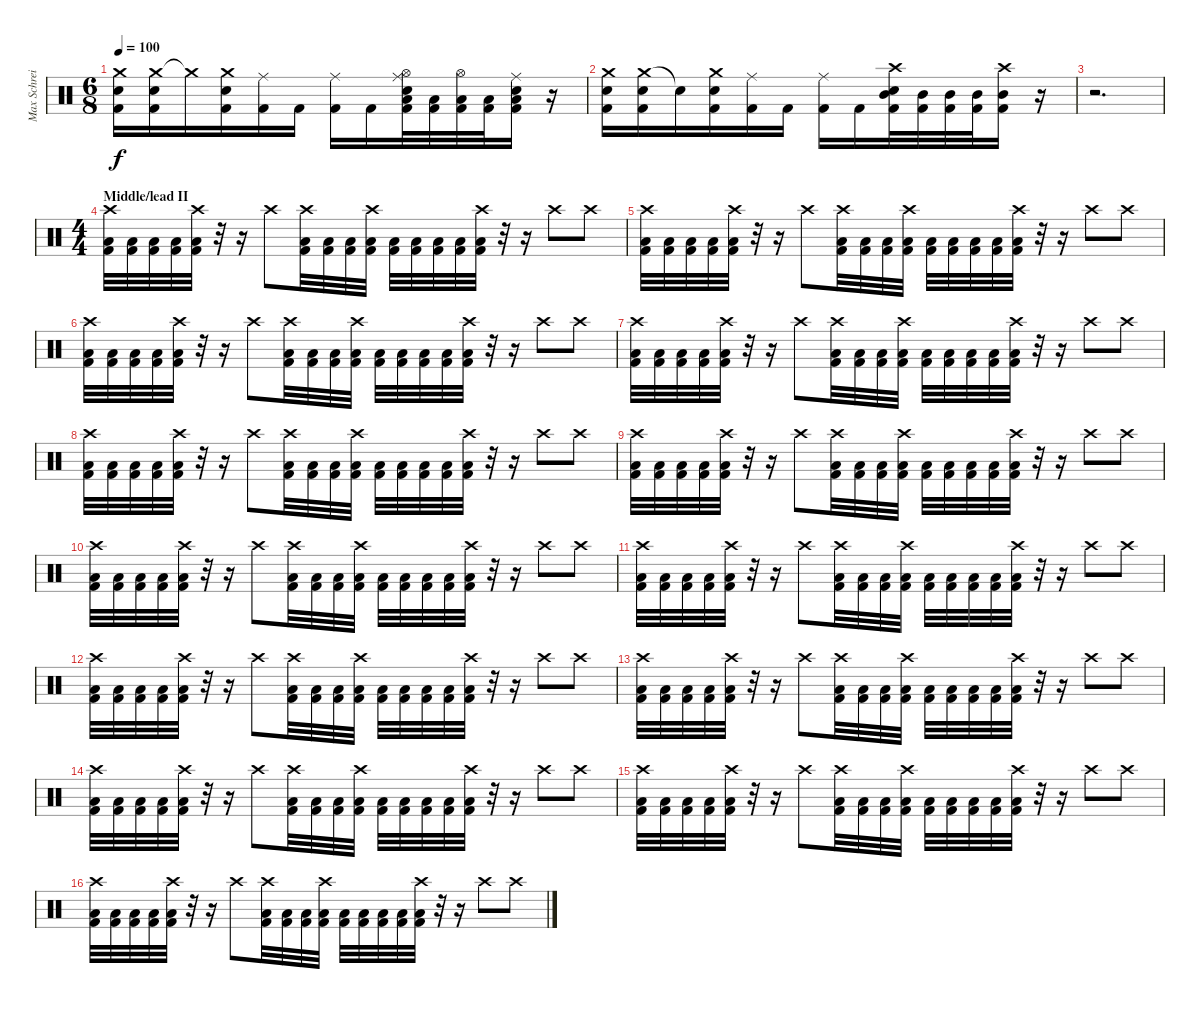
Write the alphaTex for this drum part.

\track ("Max Schreiber " "Max Schrei") {instrument percussion}
\staff {score}
\articulation defaults
\ts (6 8)
\tempo 100
\clef neutral
\ks c
("Crash medium (hit)" "Snare (hit) 2" "Kick (hit) 2").16{dy f} ("Crash medium (hit)" "Snare (hit) 2" "Kick (hit) 2").16 "Crash medium (hit)"{t}.16 ("Crash medium (hit)" "Snare (hit) 2" "Kick (hit) 2").16 ("Ride (middle)" "Kick (hit) 2").16 "Kick (hit) 2".16 ("Ride (middle)" "Kick (hit) 2").16 "Kick (hit) 2".16 ("Ride (middle)" "Hi-Hat (open)" "Electric Snare (hit)" "Low Floor Tom (hit)" "Kick (hit) 2").32 ("Low Floor Tom (hit)" "Kick (hit) 2").32 ("Hi-Hat (open)" "Low Floor Tom (hit)" "Kick (hit) 2").32 ("Low Floor Tom (hit)" "Kick (hit) 2").32 ("Ride (middle)" "Electric Snare (hit)" "Low Floor Tom (hit)" "Kick (hit) 2").16 r.16 |
("Crash medium (hit)" "Snare (hit) 2" "Kick (hit) 2").16 ("Crash medium (hit)" "Snare (hit) 2" "Kick (hit) 2").16 "Snare (hit)"{t}.16 ("Crash medium (hit)" "Snare (hit) 2" "Kick (hit) 2").16 ("Ride (middle)" "Kick (hit) 2").16 "Kick (hit) 2".16 ("Ride (middle)" "Kick (hit) 2").16 "Kick (hit) 2".16 ("Crash high (hit)" "Electric Snare (hit)" "Mid Tom (hit)" "Kick (hit) 2").32 ("Mid Tom (hit)" "Kick (hit) 2").32 ("Mid Tom (hit)" "Kick (hit) 2").32 ("Mid Tom (hit)" "Kick (hit) 2").32 ("Crash high (hit)" "Mid Tom (hit)" "Kick (hit) 2").16 r.16 |
r.2{d} |
\ts (4 4)
\section ("" "Middle/lead II")
("Crash high (hit)" "Low Floor Tom (hit)" "Kick (hit) 2").32 ("Low Floor Tom (hit)" "Kick (hit) 2").32 ("Low Floor Tom (hit)" "Kick (hit) 2").32 ("Low Floor Tom (hit)" "Kick (hit) 2").32 ("Crash high (hit)" "Low Floor Tom (hit)" "Kick (hit) 2").32 r.32 r.16 "Crash high (hit)".8 ("Crash high (hit)" "Low Floor Tom (hit)" "Kick (hit) 2").32 ("Low Floor Tom (hit)" "Kick (hit) 2").32 ("Low Floor Tom (hit)" "Kick (hit) 2").32 ("Crash high (hit)" "Low Floor Tom (hit)" "Kick (hit) 2").32 ("Low Floor Tom (hit)" "Kick (hit) 2").32 ("Low Floor Tom (hit)" "Kick (hit) 2").32 ("Low Floor Tom (hit)" "Kick (hit) 2").32 ("Low Floor Tom (hit)" "Kick (hit) 2").32 ("Crash high (hit)" "Low Floor Tom (hit)" "Kick (hit) 2").32 r.32 r.16 "Crash high (hit)".8 "Crash high (hit)".8 |
("Crash high (hit)" "Low Floor Tom (hit)" "Kick (hit) 2").32 ("Low Floor Tom (hit)" "Kick (hit) 2").32 ("Low Floor Tom (hit)" "Kick (hit) 2").32 ("Low Floor Tom (hit)" "Kick (hit) 2").32 ("Crash high (hit)" "Low Floor Tom (hit)" "Kick (hit) 2").32 r.32 r.16 "Crash high (hit)".8 ("Crash high (hit)" "Low Floor Tom (hit)" "Kick (hit) 2").32 ("Low Floor Tom (hit)" "Kick (hit) 2").32 ("Low Floor Tom (hit)" "Kick (hit) 2").32 ("Crash high (hit)" "Low Floor Tom (hit)" "Kick (hit) 2").32 ("Low Floor Tom (hit)" "Kick (hit) 2").32 ("Low Floor Tom (hit)" "Kick (hit) 2").32 ("Low Floor Tom (hit)" "Kick (hit) 2").32 ("Low Floor Tom (hit)" "Kick (hit) 2").32 ("Crash high (hit)" "Low Floor Tom (hit)" "Kick (hit) 2").32 r.32 r.16 "Crash high (hit)".8 "Crash high (hit)".8 |
("Crash high (hit)" "Low Floor Tom (hit)" "Kick (hit) 2").32 ("Low Floor Tom (hit)" "Kick (hit) 2").32 ("Low Floor Tom (hit)" "Kick (hit) 2").32 ("Low Floor Tom (hit)" "Kick (hit) 2").32 ("Crash high (hit)" "Low Floor Tom (hit)" "Kick (hit) 2").32 r.32 r.16 "Crash high (hit)".8 ("Crash high (hit)" "Low Floor Tom (hit)" "Kick (hit) 2").32 ("Low Floor Tom (hit)" "Kick (hit) 2").32 ("Low Floor Tom (hit)" "Kick (hit) 2").32 ("Crash high (hit)" "Low Floor Tom (hit)" "Kick (hit) 2").32 ("Low Floor Tom (hit)" "Kick (hit) 2").32 ("Low Floor Tom (hit)" "Kick (hit) 2").32 ("Low Floor Tom (hit)" "Kick (hit) 2").32 ("Low Floor Tom (hit)" "Kick (hit) 2").32 ("Crash high (hit)" "Low Floor Tom (hit)" "Kick (hit) 2").32 r.32 r.16 "Crash high (hit)".8 "Crash high (hit)".8 |
("Crash high (hit)" "Low Floor Tom (hit)" "Kick (hit) 2").32 ("Low Floor Tom (hit)" "Kick (hit) 2").32 ("Low Floor Tom (hit)" "Kick (hit) 2").32 ("Low Floor Tom (hit)" "Kick (hit) 2").32 ("Crash high (hit)" "Low Floor Tom (hit)" "Kick (hit) 2").32 r.32 r.16 "Crash high (hit)".8 ("Crash high (hit)" "Low Floor Tom (hit)" "Kick (hit) 2").32 ("Low Floor Tom (hit)" "Kick (hit) 2").32 ("Low Floor Tom (hit)" "Kick (hit) 2").32 ("Crash high (hit)" "Low Floor Tom (hit)" "Kick (hit) 2").32 ("Low Floor Tom (hit)" "Kick (hit) 2").32 ("Low Floor Tom (hit)" "Kick (hit) 2").32 ("Low Floor Tom (hit)" "Kick (hit) 2").32 ("Low Floor Tom (hit)" "Kick (hit) 2").32 ("Crash high (hit)" "Low Floor Tom (hit)" "Kick (hit) 2").32 r.32 r.16 "Crash high (hit)".8 "Crash high (hit)".8 |
("Crash high (hit)" "Low Floor Tom (hit)" "Kick (hit) 2").32 ("Low Floor Tom (hit)" "Kick (hit) 2").32 ("Low Floor Tom (hit)" "Kick (hit) 2").32 ("Low Floor Tom (hit)" "Kick (hit) 2").32 ("Crash high (hit)" "Low Floor Tom (hit)" "Kick (hit) 2").32 r.32 r.16 "Crash high (hit)".8 ("Crash high (hit)" "Low Floor Tom (hit)" "Kick (hit) 2").32 ("Low Floor Tom (hit)" "Kick (hit) 2").32 ("Low Floor Tom (hit)" "Kick (hit) 2").32 ("Crash high (hit)" "Low Floor Tom (hit)" "Kick (hit) 2").32 ("Low Floor Tom (hit)" "Kick (hit) 2").32 ("Low Floor Tom (hit)" "Kick (hit) 2").32 ("Low Floor Tom (hit)" "Kick (hit) 2").32 ("Low Floor Tom (hit)" "Kick (hit) 2").32 ("Crash high (hit)" "Low Floor Tom (hit)" "Kick (hit) 2").32 r.32 r.16 "Crash high (hit)".8 "Crash high (hit)".8 |
("Crash high (hit)" "Low Floor Tom (hit)" "Kick (hit) 2").32 ("Low Floor Tom (hit)" "Kick (hit) 2").32 ("Low Floor Tom (hit)" "Kick (hit) 2").32 ("Low Floor Tom (hit)" "Kick (hit) 2").32 ("Crash high (hit)" "Low Floor Tom (hit)" "Kick (hit) 2").32 r.32 r.16 "Crash high (hit)".8 ("Crash high (hit)" "Low Floor Tom (hit)" "Kick (hit) 2").32 ("Low Floor Tom (hit)" "Kick (hit) 2").32 ("Low Floor Tom (hit)" "Kick (hit) 2").32 ("Crash high (hit)" "Low Floor Tom (hit)" "Kick (hit) 2").32 ("Low Floor Tom (hit)" "Kick (hit) 2").32 ("Low Floor Tom (hit)" "Kick (hit) 2").32 ("Low Floor Tom (hit)" "Kick (hit) 2").32 ("Low Floor Tom (hit)" "Kick (hit) 2").32 ("Crash high (hit)" "Low Floor Tom (hit)" "Kick (hit) 2").32 r.32 r.16 "Crash high (hit)".8 "Crash high (hit)".8 |
("Crash high (hit)" "Low Floor Tom (hit)" "Kick (hit) 2").32 ("Low Floor Tom (hit)" "Kick (hit) 2").32 ("Low Floor Tom (hit)" "Kick (hit) 2").32 ("Low Floor Tom (hit)" "Kick (hit) 2").32 ("Crash high (hit)" "Low Floor Tom (hit)" "Kick (hit) 2").32 r.32 r.16 "Crash high (hit)".8 ("Crash high (hit)" "Low Floor Tom (hit)" "Kick (hit) 2").32 ("Low Floor Tom (hit)" "Kick (hit) 2").32 ("Low Floor Tom (hit)" "Kick (hit) 2").32 ("Crash high (hit)" "Low Floor Tom (hit)" "Kick (hit) 2").32 ("Low Floor Tom (hit)" "Kick (hit) 2").32 ("Low Floor Tom (hit)" "Kick (hit) 2").32 ("Low Floor Tom (hit)" "Kick (hit) 2").32 ("Low Floor Tom (hit)" "Kick (hit) 2").32 ("Crash high (hit)" "Low Floor Tom (hit)" "Kick (hit) 2").32 r.32 r.16 "Crash high (hit)".8 "Crash high (hit)".8 |
("Crash high (hit)" "Low Floor Tom (hit)" "Kick (hit) 2").32 ("Low Floor Tom (hit)" "Kick (hit) 2").32 ("Low Floor Tom (hit)" "Kick (hit) 2").32 ("Low Floor Tom (hit)" "Kick (hit) 2").32 ("Crash high (hit)" "Low Floor Tom (hit)" "Kick (hit) 2").32 r.32 r.16 "Crash high (hit)".8 ("Crash high (hit)" "Low Floor Tom (hit)" "Kick (hit) 2").32 ("Low Floor Tom (hit)" "Kick (hit) 2").32 ("Low Floor Tom (hit)" "Kick (hit) 2").32 ("Crash high (hit)" "Low Floor Tom (hit)" "Kick (hit) 2").32 ("Low Floor Tom (hit)" "Kick (hit) 2").32 ("Low Floor Tom (hit)" "Kick (hit) 2").32 ("Low Floor Tom (hit)" "Kick (hit) 2").32 ("Low Floor Tom (hit)" "Kick (hit) 2").32 ("Crash high (hit)" "Low Floor Tom (hit)" "Kick (hit) 2").32 r.32 r.16 "Crash high (hit)".8 "Crash high (hit)".8 |
("Crash high (hit)" "Low Floor Tom (hit)" "Kick (hit) 2").32 ("Low Floor Tom (hit)" "Kick (hit) 2").32 ("Low Floor Tom (hit)" "Kick (hit) 2").32 ("Low Floor Tom (hit)" "Kick (hit) 2").32 ("Crash high (hit)" "Low Floor Tom (hit)" "Kick (hit) 2").32 r.32 r.16 "Crash high (hit)".8 ("Crash high (hit)" "Low Floor Tom (hit)" "Kick (hit) 2").32 ("Low Floor Tom (hit)" "Kick (hit) 2").32 ("Low Floor Tom (hit)" "Kick (hit) 2").32 ("Crash high (hit)" "Low Floor Tom (hit)" "Kick (hit) 2").32 ("Low Floor Tom (hit)" "Kick (hit) 2").32 ("Low Floor Tom (hit)" "Kick (hit) 2").32 ("Low Floor Tom (hit)" "Kick (hit) 2").32 ("Low Floor Tom (hit)" "Kick (hit) 2").32 ("Crash high (hit)" "Low Floor Tom (hit)" "Kick (hit) 2").32 r.32 r.16 "Crash high (hit)".8 "Crash high (hit)".8 |
("Crash high (hit)" "Low Floor Tom (hit)" "Kick (hit) 2").32 ("Low Floor Tom (hit)" "Kick (hit) 2").32 ("Low Floor Tom (hit)" "Kick (hit) 2").32 ("Low Floor Tom (hit)" "Kick (hit) 2").32 ("Crash high (hit)" "Low Floor Tom (hit)" "Kick (hit) 2").32 r.32 r.16 "Crash high (hit)".8 ("Crash high (hit)" "Low Floor Tom (hit)" "Kick (hit) 2").32 ("Low Floor Tom (hit)" "Kick (hit) 2").32 ("Low Floor Tom (hit)" "Kick (hit) 2").32 ("Crash high (hit)" "Low Floor Tom (hit)" "Kick (hit) 2").32 ("Low Floor Tom (hit)" "Kick (hit) 2").32 ("Low Floor Tom (hit)" "Kick (hit) 2").32 ("Low Floor Tom (hit)" "Kick (hit) 2").32 ("Low Floor Tom (hit)" "Kick (hit) 2").32 ("Crash high (hit)" "Low Floor Tom (hit)" "Kick (hit) 2").32 r.32 r.16 "Crash high (hit)".8 "Crash high (hit)".8 |
("Crash high (hit)" "Low Floor Tom (hit)" "Kick (hit) 2").32 ("Low Floor Tom (hit)" "Kick (hit) 2").32 ("Low Floor Tom (hit)" "Kick (hit) 2").32 ("Low Floor Tom (hit)" "Kick (hit) 2").32 ("Crash high (hit)" "Low Floor Tom (hit)" "Kick (hit) 2").32 r.32 r.16 "Crash high (hit)".8 ("Crash high (hit)" "Low Floor Tom (hit)" "Kick (hit) 2").32 ("Low Floor Tom (hit)" "Kick (hit) 2").32 ("Low Floor Tom (hit)" "Kick (hit) 2").32 ("Crash high (hit)" "Low Floor Tom (hit)" "Kick (hit) 2").32 ("Low Floor Tom (hit)" "Kick (hit) 2").32 ("Low Floor Tom (hit)" "Kick (hit) 2").32 ("Low Floor Tom (hit)" "Kick (hit) 2").32 ("Low Floor Tom (hit)" "Kick (hit) 2").32 ("Crash high (hit)" "Low Floor Tom (hit)" "Kick (hit) 2").32 r.32 r.16 "Crash high (hit)".8 "Crash high (hit)".8 |
("Crash high (hit)" "Low Floor Tom (hit)" "Kick (hit) 2").32 ("Low Floor Tom (hit)" "Kick (hit) 2").32 ("Low Floor Tom (hit)" "Kick (hit) 2").32 ("Low Floor Tom (hit)" "Kick (hit) 2").32 ("Crash high (hit)" "Low Floor Tom (hit)" "Kick (hit) 2").32 r.32 r.16 "Crash high (hit)".8 ("Crash high (hit)" "Low Floor Tom (hit)" "Kick (hit) 2").32 ("Low Floor Tom (hit)" "Kick (hit) 2").32 ("Low Floor Tom (hit)" "Kick (hit) 2").32 ("Crash high (hit)" "Low Floor Tom (hit)" "Kick (hit) 2").32 ("Low Floor Tom (hit)" "Kick (hit) 2").32 ("Low Floor Tom (hit)" "Kick (hit) 2").32 ("Low Floor Tom (hit)" "Kick (hit) 2").32 ("Low Floor Tom (hit)" "Kick (hit) 2").32 ("Crash high (hit)" "Low Floor Tom (hit)" "Kick (hit) 2").32 r.32 r.16 "Crash high (hit)".8 "Crash high (hit)".8 |
("Crash high (hit)" "Low Floor Tom (hit)" "Kick (hit) 2").32 ("Low Floor Tom (hit)" "Kick (hit) 2").32 ("Low Floor Tom (hit)" "Kick (hit) 2").32 ("Low Floor Tom (hit)" "Kick (hit) 2").32 ("Crash high (hit)" "Low Floor Tom (hit)" "Kick (hit) 2").32 r.32 r.16 "Crash high (hit)".8 ("Crash high (hit)" "Low Floor Tom (hit)" "Kick (hit) 2").32 ("Low Floor Tom (hit)" "Kick (hit) 2").32 ("Low Floor Tom (hit)" "Kick (hit) 2").32 ("Crash high (hit)" "Low Floor Tom (hit)" "Kick (hit) 2").32 ("Low Floor Tom (hit)" "Kick (hit) 2").32 ("Low Floor Tom (hit)" "Kick (hit) 2").32 ("Low Floor Tom (hit)" "Kick (hit) 2").32 ("Low Floor Tom (hit)" "Kick (hit) 2").32 ("Crash high (hit)" "Low Floor Tom (hit)" "Kick (hit) 2").32 r.32 r.16 "Crash high (hit)".8 "Crash high (hit)".8
